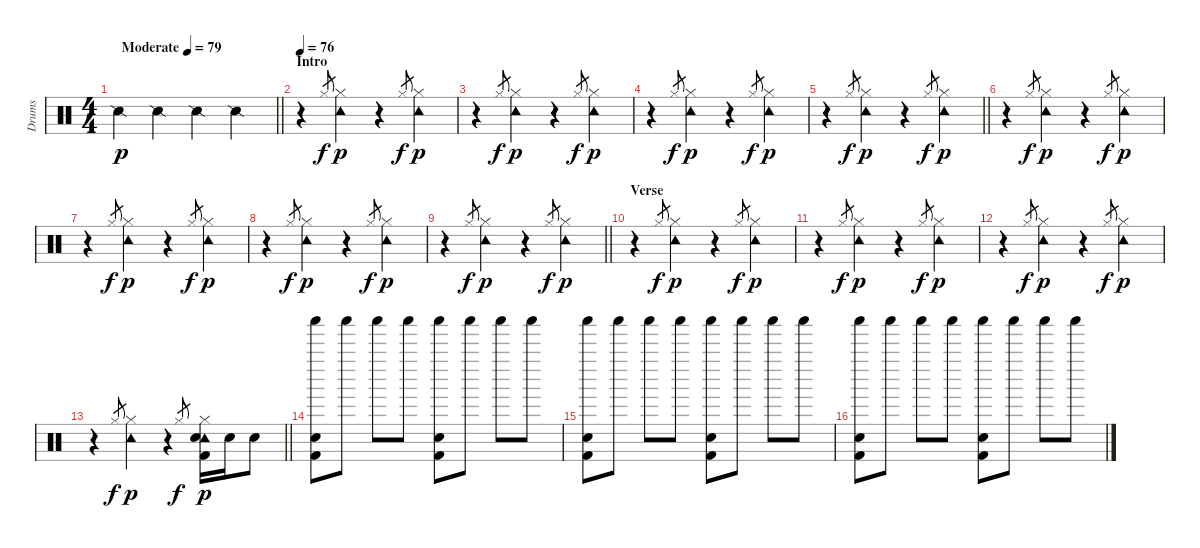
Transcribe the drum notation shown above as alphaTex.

\track ("Drums" "Drums") {instrument percussion}
\staff
\articulation defaults
\ts (4 4)
\tempo (79 "Moderate")
\clef neutral
\barLineRight lightlight
\ks c "Snare (side stick) 2".4{dy p} "Snare (side stick) 2".4 "Snare (side stick) 2".4 "Snare (side stick) 2".4
|
\section ("" "Intro")
\tempo 76
r.4 "Hi-Hat (closed)".8{gr dy f} ("Hi-Hat (closed)" "Tambourine (hit)").4{dy p} r.4 "Hi-Hat (closed)".8{gr dy f} ("Hi-Hat (closed)" "Tambourine (hit)").4{dy p} |
r.4 "Hi-Hat (closed)".8{gr dy f} ("Hi-Hat (closed)" "Tambourine (hit)").4{dy p} r.4 "Hi-Hat (closed)".8{gr dy f} ("Hi-Hat (closed)" "Tambourine (hit)").4{dy p} |
r.4 "Hi-Hat (closed)".8{gr dy f} ("Hi-Hat (closed)" "Tambourine (hit)").4{dy p} r.4 "Hi-Hat (closed)".8{gr dy f} ("Hi-Hat (closed)" "Tambourine (hit)").4{dy p} |
\barLineRight lightlight
r.4 "Hi-Hat (closed)".8{gr dy f} ("Hi-Hat (closed)" "Tambourine (hit)").4{dy p} r.4 "Hi-Hat (closed)".8{gr dy f} ("Hi-Hat (closed)" "Tambourine (hit)").4{dy p} |
r.4 "Hi-Hat (closed)".8{gr dy f} ("Hi-Hat (closed)" "Tambourine (hit)").4{dy p} r.4 "Hi-Hat (closed)".8{gr dy f} ("Hi-Hat (closed)" "Tambourine (hit)").4{dy p} |
r.4 "Hi-Hat (closed)".8{gr dy f} ("Hi-Hat (closed)" "Tambourine (hit)").4{dy p} r.4 "Hi-Hat (closed)".8{gr dy f} ("Hi-Hat (closed)" "Tambourine (hit)").4{dy p} |
r.4 "Hi-Hat (closed)".8{gr dy f} ("Hi-Hat (closed)" "Tambourine (hit)").4{dy p} r.4 "Hi-Hat (closed)".8{gr dy f} ("Hi-Hat (closed)" "Tambourine (hit)").4{dy p} |
\barLineRight lightlight
r.4 "Hi-Hat (closed)".8{gr dy f} ("Hi-Hat (closed)" "Tambourine (hit)").4{dy p} r.4 "Hi-Hat (closed)".8{gr dy f} ("Hi-Hat (closed)" "Tambourine (hit)").4{dy p} |
\section ("" "Verse")
r.4 "Hi-Hat (closed)".8{gr dy f} ("Hi-Hat (closed)" "Tambourine (hit)").4{dy p} r.4 "Hi-Hat (closed)".8{gr dy f} ("Hi-Hat (closed)" "Tambourine (hit)").4{dy p} |
r.4 "Hi-Hat (closed)".8{gr dy f} ("Hi-Hat (closed)" "Tambourine (hit)").4{dy p} r.4 "Hi-Hat (closed)".8{gr dy f} ("Hi-Hat (closed)" "Tambourine (hit)").4{dy p} |
r.4 "Hi-Hat (closed)".8{gr dy f} ("Hi-Hat (closed)" "Tambourine (hit)").4{dy p} r.4 "Hi-Hat (closed)".8{gr dy f} ("Hi-Hat (closed)" "Tambourine (hit)").4{dy p} |
\barLineRight lightlight
r.4 "Hi-Hat (closed)".8{gr dy f} ("Hi-Hat (closed)" "Tambourine (hit)").4{dy p} r.4 "Hi-Hat (closed)".8{gr dy f} ("Hi-Hat (closed)" "Tambourine (hit)" "Electric Snare (hit)" "Kick (hit) 2").16{dy p} "Electric Snare (hit)".16 "Electric Snare (hit)".8 |
("Shaker (hit)" "Electric Snare (hit)" "Kick (hit) 2").8 "Shaker (hit)".8 "Shaker (hit)".8 "Shaker (hit)".8 ("Shaker (hit)" "Electric Snare (hit)" "Kick (hit) 2").8 "Shaker (hit)".8 "Shaker (hit)".8 "Shaker (hit)".8 |
("Shaker (hit)" "Electric Snare (hit)" "Kick (hit) 2").8 "Shaker (hit)".8 "Shaker (hit)".8 "Shaker (hit)".8 ("Shaker (hit)" "Electric Snare (hit)" "Kick (hit) 2").8 "Shaker (hit)".8 "Shaker (hit)".8 "Shaker (hit)".8 |
("Shaker (hit)" "Electric Snare (hit)" "Kick (hit) 2").8 "Shaker (hit)".8 "Shaker (hit)".8 "Shaker (hit)".8 ("Shaker (hit)" "Electric Snare (hit)" "Kick (hit) 2").8 "Shaker (hit)".8 "Shaker (hit)".8 "Shaker (hit)".8
